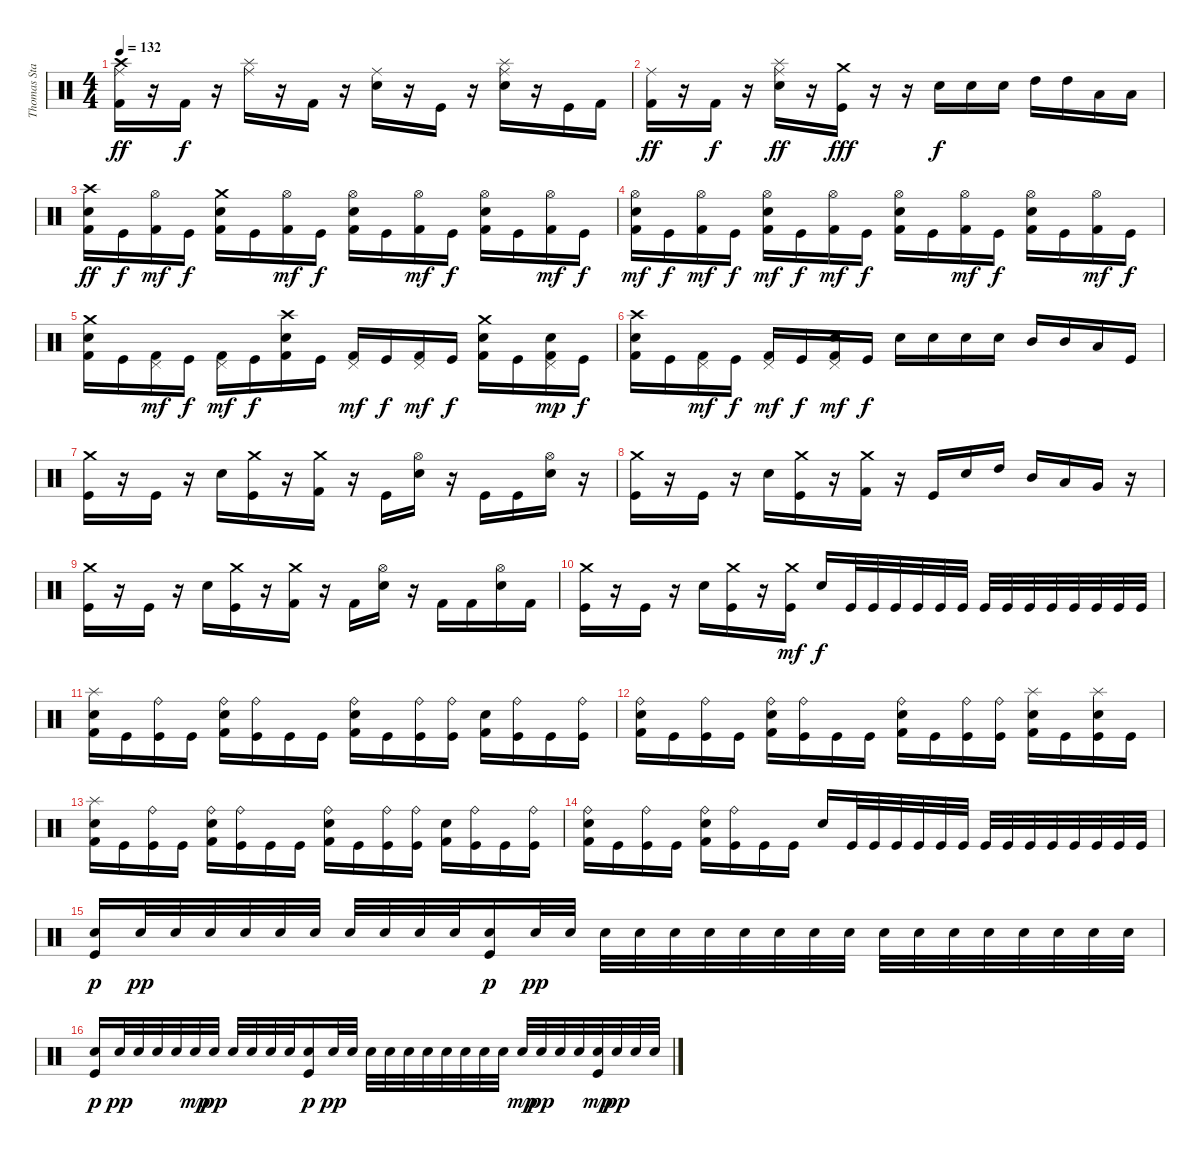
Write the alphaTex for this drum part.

\track ("Thomas Stauch" "Thomas Sta") {instrument percussion}
\staff {score}
\articulation defaults
\ts (4 4)
\tempo 132
\clef neutral
\ks c
("Ride (middle)" "Crash high (hit)" "Kick (hit) 2").16{dy ff} r.16 "Kick (hit) 2".16{dy f} r.16 ("Ride (middle)" "Splash (hit)").16 r.16 "Kick (hit) 2".16 r.16 ("Ride (middle)" "Electric Snare (hit)").16 r.16 "Kick (hit)".16 r.16 ("Ride (middle)" "Splash (hit)" "Electric Snare (hit)").16 r.16 "Kick (hit)".16 "Kick (hit) 2".16 |
("Ride (middle)" "Kick (hit) 2").16{dy ff} r.16 "Kick (hit) 2".16{dy f} r.16 ("Ride (middle)" "Splash (hit)" "Electric Snare (hit)").16{dy ff} r.16 ("Crash medium (hit)" "Kick (hit)").16{dy fff} r.16 r.16 "Electric Snare (hit)".16{dy f} "Electric Snare (hit)".16 "Electric Snare (hit)".16 "High Tom (hit)".16 "High Tom (hit)".16 "Low Tom (hit)".16 "Low Tom (hit)".16 |
("Crash high (hit)" "Electric Snare (hit)" "Kick (hit) 2").16{dy ff} "Kick (hit)".16{dy f} ("Hi-Hat (open)" "Kick (hit) 2").16{dy mf} "Kick (hit)".16{dy f} ("Crash medium (hit)" "Electric Snare (hit)" "Kick (hit) 2").16 "Kick (hit)".16 ("Hi-Hat (open)" "Kick (hit) 2").16{dy mf} "Kick (hit)".16{dy f} ("Hi-Hat (open)" "Electric Snare (hit)" "Kick (hit) 2").16 "Kick (hit)".16 ("Hi-Hat (open)" "Kick (hit) 2").16{dy mf} "Kick (hit)".16{dy f} ("Hi-Hat (open)" "Electric Snare (hit)" "Kick (hit) 2").16 "Kick (hit)".16 ("Hi-Hat (open)" "Kick (hit) 2").16{dy mf} "Kick (hit)".16{dy f} |
("Hi-Hat (open)" "Electric Snare (hit)" "Kick (hit) 2").16{dy mf} "Kick (hit)".16{dy f} ("Hi-Hat (open)" "Kick (hit) 2").16{dy mf} "Kick (hit)".16{dy f} ("Hi-Hat (open)" "Electric Snare (hit)" "Kick (hit) 2").16{dy mf} "Kick (hit)".16{dy f} ("Hi-Hat (open)" "Kick (hit) 2").16{dy mf} "Kick (hit)".16{dy f} ("Hi-Hat (open)" "Electric Snare (hit)" "Kick (hit) 2").16 "Kick (hit)".16 ("Hi-Hat (open)" "Kick (hit) 2").16{dy mf} "Kick (hit)".16{dy f} ("Hi-Hat (open)" "Electric Snare (hit)" "Kick (hit) 2").16 "Kick (hit)".16 ("Hi-Hat (open)" "Kick (hit) 2").16{dy mf} "Kick (hit)".16{dy f} |
("Crash medium (hit)" "Electric Snare (hit)" "Kick (hit) 2").16 "Kick (hit)".16 ("Pedal Hi-Hat (hit)" "Kick (hit) 2").16{dy mf} "Kick (hit)".16{dy f} ("Pedal Hi-Hat (hit)" "Kick (hit) 2").16{dy mf} "Kick (hit)".16{dy f} ("Crash high (hit)" "Electric Snare (hit)" "Kick (hit) 2").16 "Kick (hit)".16 ("Pedal Hi-Hat (hit)" "Kick (hit) 2").16{dy mf} "Kick (hit)".16{dy f} ("Pedal Hi-Hat (hit)" "Kick (hit) 2").16{dy mf} "Kick (hit)".16{dy f} ("Crash medium (hit)" "Electric Snare (hit)" "Kick (hit) 2").16 "Kick (hit)".16 ("Pedal Hi-Hat (hit)" "Electric Snare (hit)" "Kick (hit) 2").16{dy mp} "Kick (hit)".16{dy f} |
("Crash high (hit)" "Electric Snare (hit)" "Kick (hit) 2").16 "Kick (hit)".16 ("Pedal Hi-Hat (hit)" "Kick (hit) 2").16{dy mf} "Kick (hit)".16{dy f} ("Pedal Hi-Hat (hit)" "Kick (hit) 2").16{dy mf} "Kick (hit)".16{dy f} ("Pedal Hi-Hat (hit)" "Electric Snare (hit)" "Kick (hit) 2").16{dy mf} "Kick (hit)".16{dy f} "Electric Snare (hit)".16 "Electric Snare (hit)".16 "Electric Snare (hit)".16 "Electric Snare (hit)".16 "Mid Tom (hit)".16 "Mid Tom (hit)".16 "Low Tom (hit)".16 "Kick (hit)".16 |
("Crash medium (hit)" "Kick (hit)").16 r.16 "Kick (hit)".16 r.16 "Electric Snare (hit)".16 ("Crash medium (hit)" "Kick (hit)").16 r.16 ("Crash medium (hit)" "Kick (hit) 2").16 r.16 "Kick (hit)".16 ("Hi-Hat (open)" "Electric Snare (hit)").16 r.16 "Kick (hit)".16 "Kick (hit)".16 ("Hi-Hat (open)" "Electric Snare (hit)").16 r.16 |
("Crash medium (hit)" "Kick (hit)").16 r.16 "Kick (hit)".16 r.16 "Electric Snare (hit)".16 ("Crash medium (hit)" "Kick (hit)").16 r.16 ("Crash medium (hit)" "Kick (hit) 2").16 r.16 "Kick (hit)".16 "Electric Snare (hit)".16 "High Tom (hit)".16 "Mid Tom (hit)".16 "Low Tom (hit)".16 "Very Low Tom (hit)".16 r.16 |
("Crash medium (hit)" "Kick (hit)").16 r.16 "Kick (hit)".16 r.16 "Electric Snare (hit)".16 ("Crash medium (hit)" "Kick (hit)").16 r.16 ("Crash medium (hit)" "Kick (hit) 2").16 r.16 "Kick (hit) 2".16 ("Hi-Hat (open)" "Electric Snare (hit)").16 r.16 "Kick (hit) 2".16 "Kick (hit) 2".16 ("Hi-Hat (open)" "Electric Snare (hit)").16 "Kick (hit) 2".16 |
("Crash medium (hit)" "Kick (hit)").16 r.16 "Kick (hit)".16 r.16 "Electric Snare (hit)".16 ("Crash medium (hit)" "Kick (hit)").16 r.16 ("Crash medium (hit)" "Kick (hit)").16{dy mf} "Electric Snare (hit)".16{dy f} "Kick (hit)".32 "Kick (hit)".32 "Kick (hit)".32 "Kick (hit)".32 "Kick (hit)".32 "Kick (hit)".32 "Kick (hit)".32 "Kick (hit)".32 "Kick (hit)".32 "Kick (hit)".32 "Kick (hit)".32 "Kick (hit)".32 "Kick (hit)".32 "Kick (hit)".32 |
("Splash (hit)" "Electric Snare (hit)" "Kick (hit) 2").16 "Kick (hit)".16 ("Ride (bell)" "Kick (hit)").16 "Kick (hit)".16 ("Ride (bell)" "Electric Snare (hit)" "Kick (hit) 2").16 ("Ride (bell)" "Kick (hit)").16 "Kick (hit)".16 "Kick (hit)".16 ("Ride (bell)" "Electric Snare (hit)" "Kick (hit) 2").16 "Kick (hit)".16 ("Ride (bell)" "Kick (hit)").16 ("Ride (bell)" "Kick (hit)").16 ("Electric Snare (hit)" "Kick (hit) 2").16 ("Ride (bell)" "Kick (hit)").16 "Kick (hit)".16 ("Ride (bell)" "Kick (hit)").16 |
("Ride (bell)" "Electric Snare (hit)" "Kick (hit) 2").16 "Kick (hit)".16 ("Ride (bell)" "Kick (hit)").16 "Kick (hit)".16 ("Ride (bell)" "Electric Snare (hit)" "Kick (hit) 2").16 ("Ride (bell)" "Kick (hit)").16 "Kick (hit)".16 "Kick (hit)".16 ("Ride (bell)" "Electric Snare (hit)" "Kick (hit) 2").16 "Kick (hit)".16 ("Ride (bell)" "Kick (hit)").16 ("Ride (bell)" "Kick (hit)").16 ("Splash (hit)" "Electric Snare (hit)" "Kick (hit) 2").16 "Kick (hit)".16 ("Splash (hit)" "Electric Snare (hit)" "Kick (hit)").16 "Kick (hit)".16 |
("Splash (hit)" "Electric Snare (hit)" "Kick (hit) 2").16 "Kick (hit)".16 ("Ride (bell)" "Kick (hit)").16 "Kick (hit)".16 ("Ride (bell)" "Electric Snare (hit)" "Kick (hit) 2").16 ("Ride (bell)" "Kick (hit)").16 "Kick (hit)".16 "Kick (hit)".16 ("Ride (bell)" "Electric Snare (hit)" "Kick (hit) 2").16 "Kick (hit)".16 ("Ride (bell)" "Kick (hit)").16 ("Ride (bell)" "Kick (hit)").16 ("Electric Snare (hit)" "Kick (hit) 2").16 ("Ride (bell)" "Kick (hit)").16 "Kick (hit)".16 ("Ride (bell)" "Kick (hit)").16 |
("Ride (bell)" "Electric Snare (hit)" "Kick (hit) 2").16 "Kick (hit)".16 ("Ride (bell)" "Kick (hit)").16 "Kick (hit)".16 ("Ride (bell)" "Electric Snare (hit)" "Kick (hit) 2").16 ("Ride (bell)" "Kick (hit)").16 "Kick (hit)".16 "Kick (hit)".16 "Electric Snare (hit)".16 "Kick (hit)".32 "Kick (hit)".32 "Kick (hit)".32 "Kick (hit)".32 "Kick (hit)".32 "Kick (hit)".32 "Kick (hit)".32 "Kick (hit)".32 "Kick (hit)".32 "Kick (hit)".32 "Kick (hit)".32 "Kick (hit)".32 "Kick (hit)".32 "Kick (hit)".32 |
("Electric Snare (hit)" "Kick (hit)").16{dy p} "Electric Snare (hit)".32{dy pp} "Electric Snare (hit)".32 "Electric Snare (hit)".32 "Electric Snare (hit)".32 "Electric Snare (hit)".32 "Electric Snare (hit)".32 "Electric Snare (hit)".32 "Electric Snare (hit)".32 "Electric Snare (hit)".32 "Electric Snare (hit)".32 ("Electric Snare (hit)" "Kick (hit)").16{dy p} "Electric Snare (hit)".32{dy pp} "Electric Snare (hit)".32 "Electric Snare (hit)".32 "Electric Snare (hit)".32 "Electric Snare (hit)".32 "Electric Snare (hit)".32 "Electric Snare (hit)".32 "Electric Snare (hit)".32 "Electric Snare (hit)".32 "Electric Snare (hit)".32 "Electric Snare (hit)".32 "Electric Snare (hit)".32 "Electric Snare (hit)".32 "Electric Snare (hit)".32 "Electric Snare (hit)".32 "Electric Snare (hit)".32 "Electric Snare (hit)".32 "Electric Snare (hit)".32 |
("Electric Snare (hit)" "Kick (hit)").16{dy p} "Electric Snare (hit)".32{dy pp} "Electric Snare (hit)".32 "Electric Snare (hit)".32 "Electric Snare (hit)".32 "Electric Snare (hit)".32{dy mp} "Electric Snare (hit)".32{dy pp} "Electric Snare (hit)".32 "Electric Snare (hit)".32 "Electric Snare (hit)".32 "Electric Snare (hit)".32 ("Electric Snare (hit)" "Kick (hit)").16{dy p} "Electric Snare (hit)".32{dy pp} "Electric Snare (hit)".32 "Electric Snare (hit)".32 "Electric Snare (hit)".32 "Electric Snare (hit)".32 "Electric Snare (hit)".32 "Electric Snare (hit)".32 "Electric Snare (hit)".32 "Electric Snare (hit)".32 "Electric Snare (hit)".32 "Electric Snare (hit)".32{dy mp} "Electric Snare (hit)".32{dy pp} "Electric Snare (hit)".32 "Electric Snare (hit)".32 ("Electric Snare (hit)" "Kick (hit)").32{dy mp} "Electric Snare (hit)".32{dy pp} "Electric Snare (hit)".32 "Electric Snare (hit)".32
